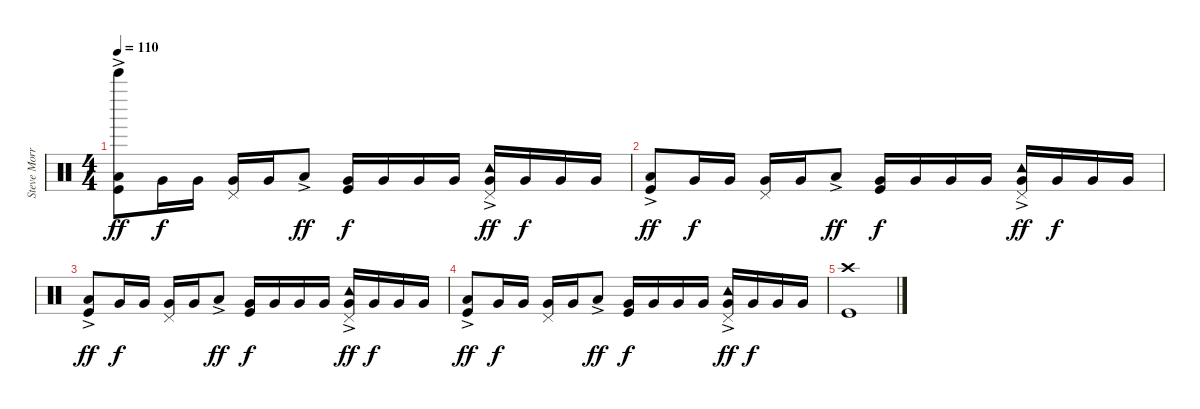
\track ("Steve Morris Drums" "Steve Morr") {instrument percussion}
\staff {score}
\articulation defaults
\ts (4 4)
\tempo 110
\clef neutral
\ks c
("Bell Tree (hit)" "Low Tom (hit)"{ac} "Kick (hit)").8{dy ff} "Very Low Tom (hit)".16{dy f} "Very Low Tom (hit)".16 ("Pedal Hi-Hat (hit)" "Very Low Tom (hit)").16 "Very Low Tom (hit)".16 "Low Tom (hit)"{ac}.8{dy ff} ("Very Low Tom (hit)" "Kick (hit)").16{dy f} "Very Low Tom (hit)".16 "Very Low Tom (hit)".16 "Very Low Tom (hit)".16 ("Pedal Hi-Hat (hit)" "Tambourine (hit)"{ac} "Very Low Tom (hit)").16{dy ff} "Very Low Tom (hit)".16{dy f} "Very Low Tom (hit)".16 "Very Low Tom (hit)".16 |
("Low Tom (hit)"{ac} "Kick (hit)").8{dy ff} "Very Low Tom (hit)".16{dy f} "Very Low Tom (hit)".16 ("Pedal Hi-Hat (hit)" "Very Low Tom (hit)").16 "Very Low Tom (hit)".16 "Low Tom (hit)"{ac}.8{dy ff} ("Very Low Tom (hit)" "Kick (hit)").16{dy f} "Very Low Tom (hit)".16 "Very Low Tom (hit)".16 "Very Low Tom (hit)".16 ("Pedal Hi-Hat (hit)" "Tambourine (hit)"{ac} "Very Low Tom (hit)").16{dy ff} "Very Low Tom (hit)".16{dy f} "Very Low Tom (hit)".16 "Very Low Tom (hit)".16 |
("Low Tom (hit)"{ac} "Kick (hit)").8{dy ff} "Very Low Tom (hit)".16{dy f} "Very Low Tom (hit)".16 ("Pedal Hi-Hat (hit)" "Very Low Tom (hit)").16 "Very Low Tom (hit)".16 "Low Tom (hit)"{ac}.8{dy ff} ("Very Low Tom (hit)" "Kick (hit)").16{dy f} "Very Low Tom (hit)".16 "Very Low Tom (hit)".16 "Very Low Tom (hit)".16 ("Pedal Hi-Hat (hit)" "Tambourine (hit)"{ac} "Very Low Tom (hit)").16{dy ff} "Very Low Tom (hit)".16{dy f} "Very Low Tom (hit)".16 "Very Low Tom (hit)".16 |
("Low Tom (hit)"{ac} "Kick (hit)").8{dy ff} "Very Low Tom (hit)".16{dy f} "Very Low Tom (hit)".16 ("Pedal Hi-Hat (hit)" "Very Low Tom (hit)").16 "Very Low Tom (hit)".16 "Low Tom (hit)"{ac}.8{dy ff} ("Very Low Tom (hit)" "Kick (hit)").16{dy f} "Very Low Tom (hit)".16 "Very Low Tom (hit)".16 "Very Low Tom (hit)".16 ("Pedal Hi-Hat (hit)" "Tambourine (hit)"{ac} "Very Low Tom (hit)").16{dy ff} "Very Low Tom (hit)".16{dy f} "Very Low Tom (hit)".16 "Very Low Tom (hit)".16 |
("Crash high (hit)" "Kick (hit)").1
